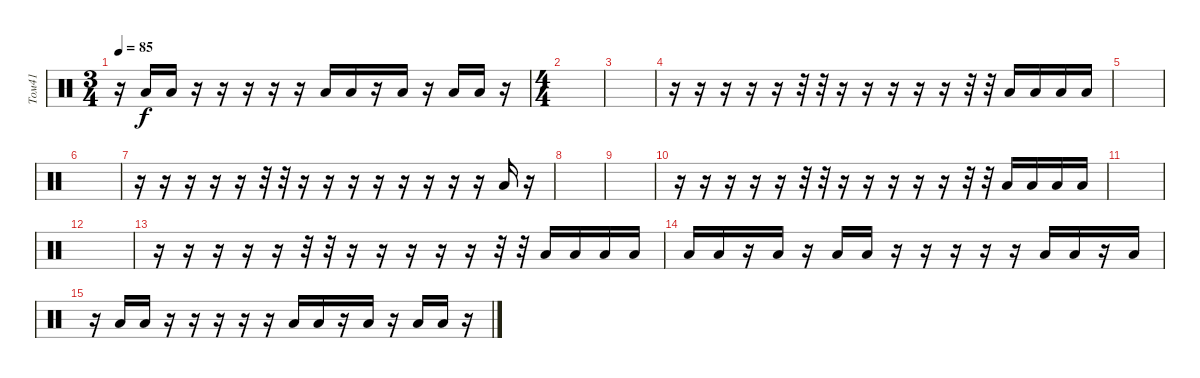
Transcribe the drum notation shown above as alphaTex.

\track ("Том41" "Том41") {instrument percussion}
\staff {score}
\articulation defaults
\ts (3 4)
\tempo 85
\clef neutral
\ks c
r.16{dy f} "Low Floor Tom (hit)".16 "Low Floor Tom (hit)".16 r.16 r.16 r.16 r.16 r.16 "Low Floor Tom (hit)".16 "Low Floor Tom (hit)".16 r.16 "Low Floor Tom (hit)".16 r.16 "Low Floor Tom (hit)".16 "Low Floor Tom (hit)".16 r.16 |
\ts (4 4)
|
|
r.16 r.16 r.16 r.16 r.16 r.32 r.32 r.16 r.16 r.16 r.16 r.16 r.32 r.32 "Low Floor Tom (hit)".16 "Low Floor Tom (hit)".16 "Low Floor Tom (hit)".16 "Low Floor Tom (hit)".16 |
|
|
r.16 r.16 r.16 r.16 r.16 r.32 r.32 r.16 r.16 r.16 r.16 r.16 r.16 r.16 r.16 "Low Floor Tom (hit)".16 r.16 |
|
|
r.16 r.16 r.16 r.16 r.16 r.32 r.32 r.16 r.16 r.16 r.16 r.16 r.32 r.32 "Low Floor Tom (hit)".16 "Low Floor Tom (hit)".16 "Low Floor Tom (hit)".16 "Low Floor Tom (hit)".16 |
|
|
r.16 r.16 r.16 r.16 r.16 r.32 r.32 r.16 r.16 r.16 r.16 r.16 r.32 r.32 "Low Floor Tom (hit)".16 "Low Floor Tom (hit)".16 "Low Floor Tom (hit)".16 "Low Floor Tom (hit)".16 |
"Low Floor Tom (hit)".16 "Low Floor Tom (hit)".16 r.16 "Low Floor Tom (hit)".16 r.16 "Low Floor Tom (hit)".16 "Low Floor Tom (hit)".16 r.16 r.16 r.16 r.16 r.16 "Low Floor Tom (hit)".16 "Low Floor Tom (hit)".16 r.16 "Low Floor Tom (hit)".16 |
r.16 "Low Floor Tom (hit)".16 "Low Floor Tom (hit)".16 r.16 r.16 r.16 r.16 r.16 "Low Floor Tom (hit)".16 "Low Floor Tom (hit)".16 r.16 "Low Floor Tom (hit)".16 r.16 "Low Floor Tom (hit)".16 "Low Floor Tom (hit)".16 r.16
